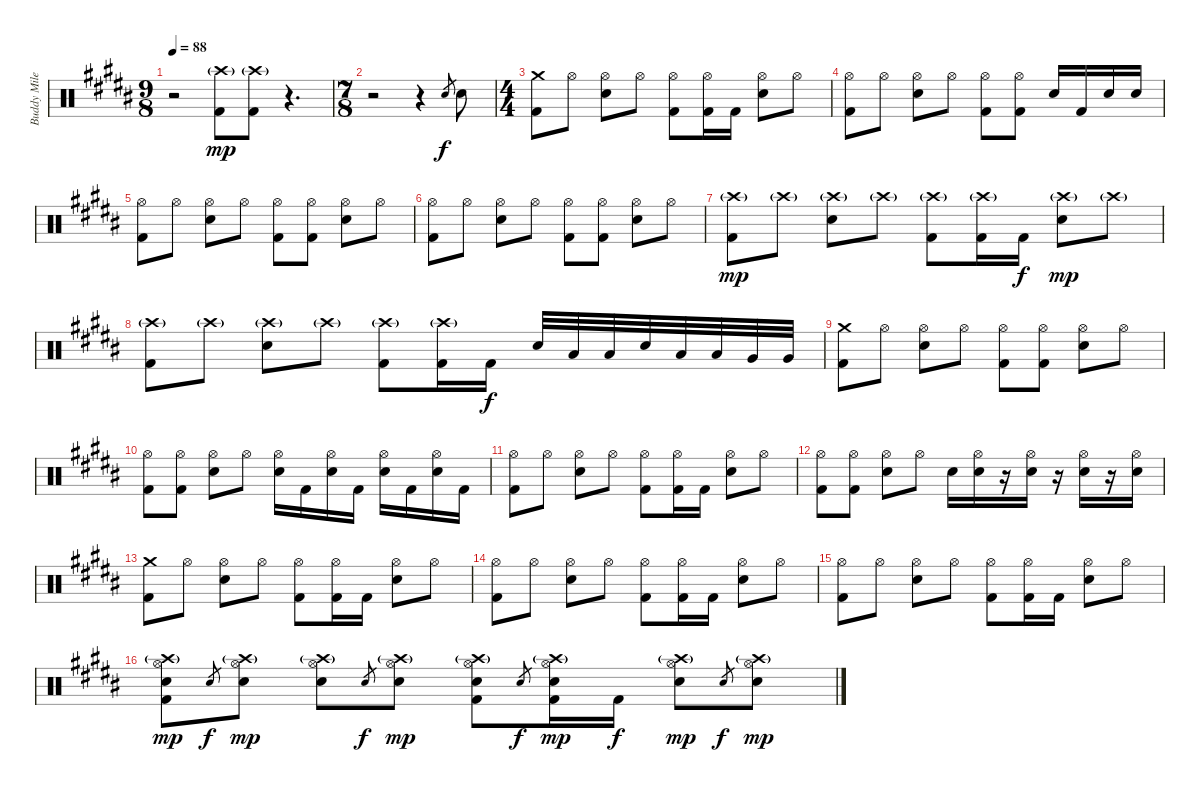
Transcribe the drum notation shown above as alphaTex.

\track ("Buddy Miles" "Buddy Mile") {instrument percussion}
\staff {score}
\articulation defaults
\ts (9 8)
\tempo 88
\clef neutral
\ks b
r.2{dy mp} ("Crash high (hit)"{g} "Kick (hit) 2").8 ("Crash high (hit)"{g} "Kick (hit) 2").8 r.4{d} |
\ts (7 8)
r.2 r.4 "Electric Snare (hit)".8{gr dy f} "Electric Snare (hit)".8 |
\ts (4 4)
("Kick (hit) 2" "Crash medium (hit)").8 "Hi-Hat (open)".8 ("Hi-Hat (open)" "Electric Snare (hit)").8 "Hi-Hat (open)".8 ("Hi-Hat (open)" "Kick (hit) 2").8 ("Hi-Hat (open)" "Kick (hit) 2").16 "Kick (hit) 2".16 ("Hi-Hat (open)" "Electric Snare (hit)").8 "Hi-Hat (open)".8 |
("Hi-Hat (open)" "Kick (hit) 2").8 "Hi-Hat (open)".8 ("Hi-Hat (open)" "Electric Snare (hit)").8 "Hi-Hat (open)".8 ("Hi-Hat (open)" "Kick (hit) 2").8 ("Hi-Hat (open)" "Kick (hit) 2").8 "Electric Snare (hit)".16 "Kick (hit) 2".16 "Electric Snare (hit)".16 "Electric Snare (hit)".16 |
("Hi-Hat (open)" "Kick (hit) 2").8 "Hi-Hat (open)".8 ("Hi-Hat (open)" "Electric Snare (hit)").8 "Hi-Hat (open)".8 ("Hi-Hat (open)" "Kick (hit) 2").8 ("Hi-Hat (open)" "Kick (hit) 2").8 ("Hi-Hat (open)" "Electric Snare (hit)").8 "Hi-Hat (open)".8 |
("Hi-Hat (open)" "Kick (hit) 2").8 "Hi-Hat (open)".8 ("Hi-Hat (open)" "Electric Snare (hit)").8 "Hi-Hat (open)".8 ("Hi-Hat (open)" "Kick (hit) 2").8 ("Hi-Hat (open)" "Kick (hit) 2").8 ("Hi-Hat (open)" "Electric Snare (hit)").8 "Hi-Hat (open)".8 |
("Crash high (hit)"{g} "Kick (hit) 2").8{dy mp} "Crash high (hit)"{g}.8 ("Crash high (hit)"{g} "Electric Snare (hit)").8 "Crash high (hit)"{g}.8 ("Crash high (hit)"{g} "Kick (hit) 2").8 ("Crash high (hit)"{g} "Kick (hit) 2").16 "Kick (hit) 2".16{dy f} ("Crash high (hit)"{g} "Electric Snare (hit)").8{dy mp} "Crash high (hit)"{g}.8 |
("Crash high (hit)"{g} "Kick (hit) 2").8 "Crash high (hit)"{g}.8 ("Crash high (hit)"{g} "Electric Snare (hit)").8 "Crash high (hit)"{g}.8 ("Crash high (hit)"{g} "Kick (hit) 2").8 ("Crash high (hit)"{g} "Kick (hit) 2").16 "Kick (hit) 2".16{dy f} "Electric Snare (hit)".32 "Low Floor Tom (hit)".32 "Low Floor Tom (hit)".32 "Electric Snare (hit)".32 "Low Floor Tom (hit)".32 "Low Floor Tom (hit)".32 "Very Low Tom (hit)".32 "Very Low Tom (hit)".32 |
("Kick (hit) 2" "Crash medium (hit)").8 "Hi-Hat (open)".8 ("Hi-Hat (open)" "Electric Snare (hit)").8 "Hi-Hat (open)".8 ("Hi-Hat (open)" "Kick (hit) 2").8 ("Hi-Hat (open)" "Kick (hit) 2").8 ("Hi-Hat (open)" "Electric Snare (hit)").8 "Hi-Hat (open)".8 |
("Hi-Hat (open)" "Kick (hit) 2").8 ("Hi-Hat (open)" "Kick (hit) 2").8 ("Hi-Hat (open)" "Electric Snare (hit)").8 "Hi-Hat (open)".8 ("Hi-Hat (open)" "Electric Snare (hit)").16 "Kick (hit) 2".16 ("Hi-Hat (open)" "Electric Snare (hit)").16 "Kick (hit) 2".16 ("Hi-Hat (open)" "Electric Snare (hit)").16 "Kick (hit) 2".16 ("Hi-Hat (open)" "Electric Snare (hit)").16 "Kick (hit) 2".16 |
("Hi-Hat (open)" "Kick (hit) 2").8 "Hi-Hat (open)".8 ("Hi-Hat (open)" "Electric Snare (hit)").8 "Hi-Hat (open)".8 ("Hi-Hat (open)" "Kick (hit) 2").8 ("Hi-Hat (open)" "Kick (hit) 2").16 "Kick (hit) 2".16 ("Hi-Hat (open)" "Electric Snare (hit)").8 "Hi-Hat (open)".8 |
("Hi-Hat (open)" "Kick (hit) 2").8 ("Hi-Hat (open)" "Kick (hit) 2").8 ("Hi-Hat (open)" "Electric Snare (hit)").8 "Hi-Hat (open)".8 "Electric Snare (hit)".16 ("Hi-Hat (open)" "Electric Snare (hit)").16 r.16 ("Hi-Hat (open)" "Electric Snare (hit)").16 r.16 ("Hi-Hat (open)" "Electric Snare (hit)").16 r.16 ("Hi-Hat (open)" "Electric Snare (hit)").16 |
("Kick (hit) 2" "Crash medium (hit)").8 "Hi-Hat (open)".8 ("Hi-Hat (open)" "Electric Snare (hit)").8 "Hi-Hat (open)".8 ("Hi-Hat (open)" "Kick (hit) 2").8 ("Hi-Hat (open)" "Kick (hit) 2").16 "Kick (hit) 2".16 ("Hi-Hat (open)" "Electric Snare (hit)").8 "Hi-Hat (open)".8 |
("Hi-Hat (open)" "Kick (hit) 2").8 "Hi-Hat (open)".8 ("Hi-Hat (open)" "Electric Snare (hit)").8 "Hi-Hat (open)".8 ("Hi-Hat (open)" "Kick (hit) 2").8 ("Hi-Hat (open)" "Kick (hit) 2").16 "Kick (hit) 2".16 ("Hi-Hat (open)" "Electric Snare (hit)").8 "Hi-Hat (open)".8 |
("Hi-Hat (open)" "Kick (hit) 2").8 "Hi-Hat (open)".8 ("Hi-Hat (open)" "Electric Snare (hit)").8 "Hi-Hat (open)".8 ("Hi-Hat (open)" "Kick (hit) 2").8 ("Hi-Hat (open)" "Kick (hit) 2").16 "Kick (hit) 2".16 ("Hi-Hat (open)" "Electric Snare (hit)").8 "Hi-Hat (open)".8 |
("Hi-Hat (open)" "Crash high (hit)"{g} "Kick (hit) 2" "Electric Snare (hit)").8{dy mp} "Electric Snare (hit)".8{gr dy f} ("Hi-Hat (open)" "Crash high (hit)"{g} "Electric Snare (hit)").8{dy mp} ("Hi-Hat (open)" "Crash high (hit)"{g} "Electric Snare (hit)").8 "Electric Snare (hit)".8{gr dy f} ("Hi-Hat (open)" "Crash high (hit)"{g} "Electric Snare (hit)").8{dy mp} ("Hi-Hat (open)" "Crash high (hit)"{g} "Kick (hit) 2" "Electric Snare (hit)").8 "Electric Snare (hit)".8{gr dy f} ("Hi-Hat (open)" "Crash high (hit)"{g} "Kick (hit) 2" "Electric Snare (hit)").16{dy mp} "Kick (hit) 2".16{dy f} ("Hi-Hat (open)" "Crash high (hit)"{g} "Electric Snare (hit)").8{dy mp} "Electric Snare (hit)".8{gr dy f} ("Hi-Hat (open)" "Crash high (hit)"{g} "Electric Snare (hit)").8{dy mp}
